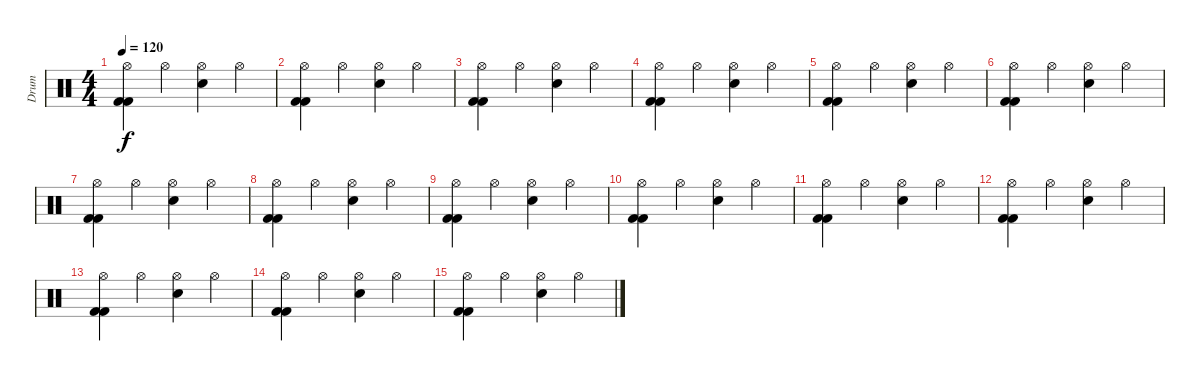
\track ("Drum" "Drum") {instrument percussion}
\staff {score}
\articulation defaults
\ts (4 4)
\tempo 120
\clef neutral
\ks c
("Kick (hit) 2" "Kick (hit) 2" "Hi-Hat (open)").4{dy f} "Hi-Hat (open)".4 ("Snare (hit) 2" "Hi-Hat (open)").4 "Hi-Hat (open)".4 |
("Kick (hit) 2" "Kick (hit) 2" "Hi-Hat (open)").4 "Hi-Hat (open)".4 ("Snare (hit) 2" "Hi-Hat (open)").4 "Hi-Hat (open)".4 |
("Kick (hit) 2" "Kick (hit) 2" "Hi-Hat (open)").4 "Hi-Hat (open)".4 ("Snare (hit) 2" "Hi-Hat (open)").4 "Hi-Hat (open)".4 |
("Kick (hit) 2" "Kick (hit) 2" "Hi-Hat (open)").4 "Hi-Hat (open)".4 ("Snare (hit) 2" "Hi-Hat (open)").4 "Hi-Hat (open)".4 |
("Kick (hit) 2" "Kick (hit) 2" "Hi-Hat (open)").4 "Hi-Hat (open)".4 ("Snare (hit) 2" "Hi-Hat (open)").4 "Hi-Hat (open)".4 |
("Kick (hit) 2" "Kick (hit) 2" "Hi-Hat (open)").4 "Hi-Hat (open)".4 ("Snare (hit) 2" "Hi-Hat (open)").4 "Hi-Hat (open)".4 |
("Kick (hit) 2" "Kick (hit) 2" "Hi-Hat (open)").4 "Hi-Hat (open)".4 ("Snare (hit) 2" "Hi-Hat (open)").4 "Hi-Hat (open)".4 |
("Kick (hit) 2" "Kick (hit) 2" "Hi-Hat (open)").4 "Hi-Hat (open)".4 ("Snare (hit) 2" "Hi-Hat (open)").4 "Hi-Hat (open)".4 |
("Kick (hit) 2" "Kick (hit) 2" "Hi-Hat (open)").4 "Hi-Hat (open)".4 ("Snare (hit) 2" "Hi-Hat (open)").4 "Hi-Hat (open)".4 |
("Kick (hit) 2" "Kick (hit) 2" "Hi-Hat (open)").4 "Hi-Hat (open)".4 ("Snare (hit) 2" "Hi-Hat (open)").4 "Hi-Hat (open)".4 |
("Kick (hit) 2" "Kick (hit) 2" "Hi-Hat (open)").4 "Hi-Hat (open)".4 ("Snare (hit) 2" "Hi-Hat (open)").4 "Hi-Hat (open)".4 |
("Kick (hit) 2" "Kick (hit) 2" "Hi-Hat (open)").4 "Hi-Hat (open)".4 ("Snare (hit) 2" "Hi-Hat (open)").4 "Hi-Hat (open)".4 |
("Kick (hit) 2" "Kick (hit) 2" "Hi-Hat (open)").4 "Hi-Hat (open)".4 ("Snare (hit) 2" "Hi-Hat (open)").4 "Hi-Hat (open)".4 |
("Kick (hit) 2" "Kick (hit) 2" "Hi-Hat (open)").4 "Hi-Hat (open)".4 ("Snare (hit) 2" "Hi-Hat (open)").4 "Hi-Hat (open)".4 |
("Kick (hit) 2" "Kick (hit) 2" "Hi-Hat (open)").4 "Hi-Hat (open)".4 ("Snare (hit) 2" "Hi-Hat (open)").4 "Hi-Hat (open)".4
